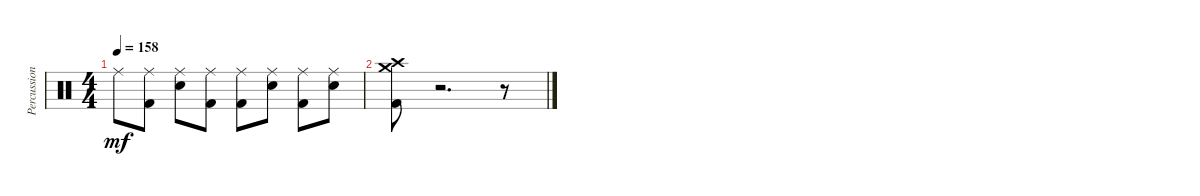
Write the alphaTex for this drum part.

\track ("Percussions" "Percussion") {instrument percussion}
\staff {score}
\articulation defaults
\ts (4 4)
\tempo 158
\clef neutral
\ks c "Ride (middle)".8{dy mf}
("Ride (middle)" "Kick (hit) 2").8 ("Ride (middle)" "Electric Snare (hit)").8 ("Ride (middle)" "Kick (hit) 2").8 ("Ride (middle)" "Kick (hit) 2").8 ("Ride (middle)" "Electric Snare (hit)").8 ("Ride (middle)" "Kick (hit) 2").8 ("Ride (middle)" "Electric Snare (hit)").8 |
("Crash high (hit)" "Crash medium (hit)" "Kick (hit) 2").8 r.2{d} r.8
